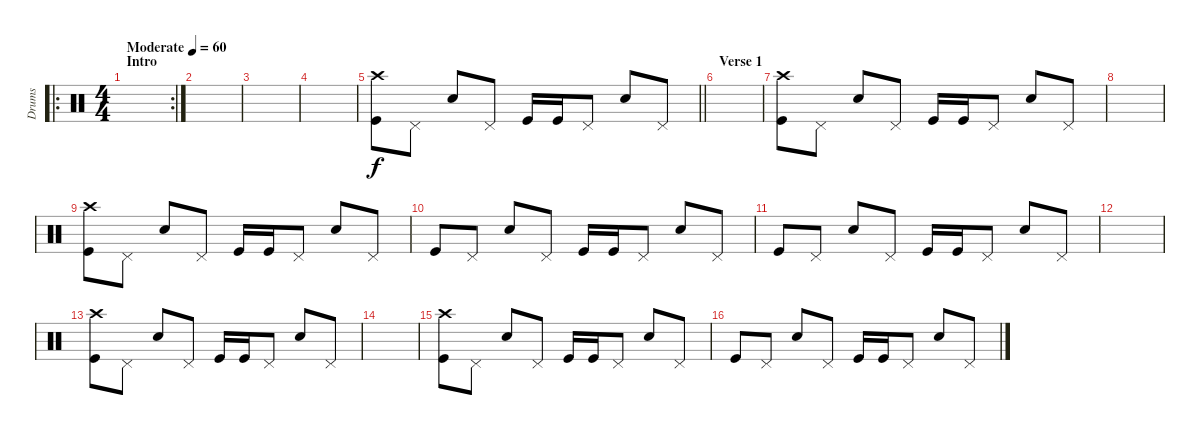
\track ("Drums" "Drums") {instrument percussion}
\staff {score}
\articulation defaults
\ro
\rc 2
\ts (4 4)
\section ("" "Intro")
\tempo (60 "Moderate")
\clef neutral
\ks c
|
|
|
|
\barLineRight lightlight
("Kick (hit)" "Crash high (hit)").8 "Pedal Hi-Hat (hit)".8 "Snare (hit) 2".8 "Pedal Hi-Hat (hit)".8 "Kick (hit)".16 "Kick (hit)".16 "Pedal Hi-Hat (hit)".8 "Snare (hit) 2".8 "Pedal Hi-Hat (hit)".8 |
\section ("" "Verse 1")
|
("Kick (hit)" "Crash high (hit)").8 "Pedal Hi-Hat (hit)".8 "Snare (hit) 2".8 "Pedal Hi-Hat (hit)".8 "Kick (hit)".16 "Kick (hit)".16 "Pedal Hi-Hat (hit)".8 "Snare (hit) 2".8 "Pedal Hi-Hat (hit)".8 |
|
("Kick (hit)" "Crash high (hit)").8 "Pedal Hi-Hat (hit)".8 "Snare (hit) 2".8 "Pedal Hi-Hat (hit)".8 "Kick (hit)".16 "Kick (hit)".16 "Pedal Hi-Hat (hit)".8 "Snare (hit) 2".8 "Pedal Hi-Hat (hit)".8 |
"Kick (hit)".8 "Pedal Hi-Hat (hit)".8 "Snare (hit) 2".8 "Pedal Hi-Hat (hit)".8 "Kick (hit)".16 "Kick (hit)".16 "Pedal Hi-Hat (hit)".8 "Snare (hit) 2".8 "Pedal Hi-Hat (hit)".8 |
"Kick (hit)".8 "Pedal Hi-Hat (hit)".8 "Snare (hit) 2".8 "Pedal Hi-Hat (hit)".8 "Kick (hit)".16 "Kick (hit)".16 "Pedal Hi-Hat (hit)".8 "Snare (hit) 2".8 "Pedal Hi-Hat (hit)".8 |
|
("Kick (hit)" "Crash high (hit)").8 "Pedal Hi-Hat (hit)".8 "Snare (hit) 2".8 "Pedal Hi-Hat (hit)".8 "Kick (hit)".16 "Kick (hit)".16 "Pedal Hi-Hat (hit)".8 "Snare (hit) 2".8 "Pedal Hi-Hat (hit)".8 |
|
("Kick (hit)" "Crash high (hit)").8 "Pedal Hi-Hat (hit)".8 "Snare (hit) 2".8 "Pedal Hi-Hat (hit)".8 "Kick (hit)".16 "Kick (hit)".16 "Pedal Hi-Hat (hit)".8 "Snare (hit) 2".8 "Pedal Hi-Hat (hit)".8 |
"Kick (hit)".8 "Pedal Hi-Hat (hit)".8 "Snare (hit) 2".8 "Pedal Hi-Hat (hit)".8 "Kick (hit)".16 "Kick (hit)".16 "Pedal Hi-Hat (hit)".8 "Snare (hit) 2".8 "Pedal Hi-Hat (hit)".8
